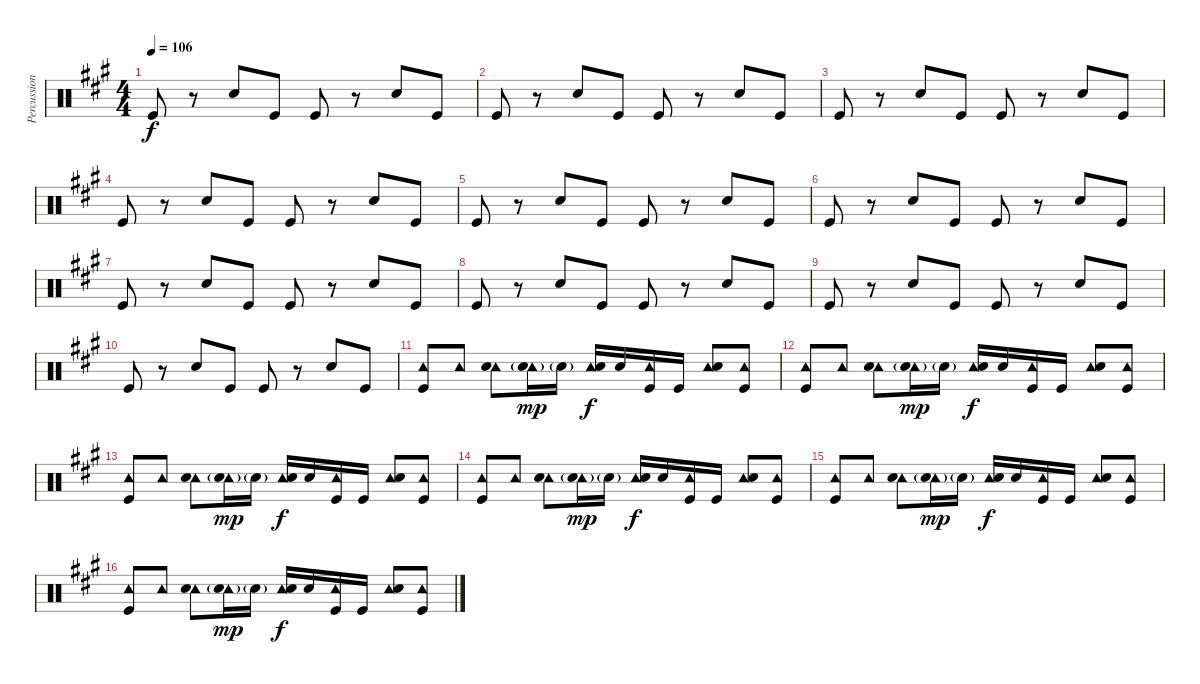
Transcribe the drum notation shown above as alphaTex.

\track ("Percussion" "Percussion") {instrument percussion}
\staff {score}
\articulation defaults
\ts (4 4)
\tempo 106
\clef neutral
\ks f#minor "Kick (hit)".8{dy f}
r.8 "Snare (hit) 2".8 "Kick (hit)".8 "Kick (hit)".8 r.8 "Snare (hit) 2".8 "Kick (hit)".8 |
"Kick (hit)".8 r.8 "Snare (hit) 2".8 "Kick (hit)".8 "Kick (hit)".8 r.8 "Snare (hit) 2".8 "Kick (hit)".8 |
"Kick (hit)".8 r.8 "Snare (hit) 2".8 "Kick (hit)".8 "Kick (hit)".8 r.8 "Snare (hit) 2".8 "Kick (hit)".8 |
"Kick (hit)".8 r.8 "Snare (hit) 2".8 "Kick (hit)".8 "Kick (hit)".8 r.8 "Snare (hit) 2".8 "Kick (hit)".8 |
"Kick (hit)".8 r.8 "Snare (hit) 2".8 "Kick (hit)".8 "Kick (hit)".8 r.8 "Snare (hit) 2".8 "Kick (hit)".8 |
"Kick (hit)".8 r.8 "Snare (hit) 2".8 "Kick (hit)".8 "Kick (hit)".8 r.8 "Snare (hit) 2".8 "Kick (hit)".8 |
"Kick (hit)".8 r.8 "Snare (hit) 2".8 "Kick (hit)".8 "Kick (hit)".8 r.8 "Snare (hit) 2".8 "Kick (hit)".8 |
"Kick (hit)".8 r.8 "Snare (hit) 2".8 "Kick (hit)".8 "Kick (hit)".8 r.8 "Snare (hit) 2".8 "Kick (hit)".8 |
"Kick (hit)".8 r.8 "Snare (hit) 2".8 "Kick (hit)".8 "Kick (hit)".8 r.8 "Snare (hit) 2".8 "Kick (hit)".8 |
"Kick (hit)".8 r.8 "Snare (hit) 2".8 "Kick (hit)".8 "Kick (hit)".8 r.8 "Snare (hit) 2".8 "Kick (hit)".8 |
("Tambourine (hit)" "Kick (hit)").8 "Tambourine (hit)".8 ("Tambourine (hit)" "Snare (hit) 2").8 ("Tambourine (hit)" "Snare (hit) 2"{g}).16{dy mp} "Snare (hit) 2"{g}.16 ("Tambourine (hit)" "Snare (hit) 2").16{dy f} "Snare (hit) 2".16 ("Tambourine (hit)" "Kick (hit)").16 "Kick (hit)".16 ("Tambourine (hit)" "Snare (hit) 2").8 ("Tambourine (hit)" "Kick (hit)").8 |
("Tambourine (hit)" "Kick (hit)").8 "Tambourine (hit)".8 ("Tambourine (hit)" "Snare (hit) 2").8 ("Tambourine (hit)" "Snare (hit) 2"{g}).16{dy mp} "Snare (hit) 2"{g}.16 ("Tambourine (hit)" "Snare (hit) 2").16{dy f} "Snare (hit) 2".16 ("Tambourine (hit)" "Kick (hit)").16 "Kick (hit)".16 ("Tambourine (hit)" "Snare (hit) 2").8 ("Tambourine (hit)" "Kick (hit)").8 |
("Tambourine (hit)" "Kick (hit)").8 "Tambourine (hit)".8 ("Tambourine (hit)" "Snare (hit) 2").8 ("Tambourine (hit)" "Snare (hit) 2"{g}).16{dy mp} "Snare (hit) 2"{g}.16 ("Tambourine (hit)" "Snare (hit) 2").16{dy f} "Snare (hit) 2".16 ("Tambourine (hit)" "Kick (hit)").16 "Kick (hit)".16 ("Tambourine (hit)" "Snare (hit) 2").8 ("Tambourine (hit)" "Kick (hit)").8 |
("Tambourine (hit)" "Kick (hit)").8 "Tambourine (hit)".8 ("Tambourine (hit)" "Snare (hit) 2").8 ("Tambourine (hit)" "Snare (hit) 2"{g}).16{dy mp} "Snare (hit) 2"{g}.16 ("Tambourine (hit)" "Snare (hit) 2").16{dy f} "Snare (hit) 2".16 ("Tambourine (hit)" "Kick (hit)").16 "Kick (hit)".16 ("Tambourine (hit)" "Snare (hit) 2").8 ("Tambourine (hit)" "Kick (hit)").8 |
("Tambourine (hit)" "Kick (hit)").8 "Tambourine (hit)".8 ("Tambourine (hit)" "Snare (hit) 2").8 ("Tambourine (hit)" "Snare (hit) 2"{g}).16{dy mp} "Snare (hit) 2"{g}.16 ("Tambourine (hit)" "Snare (hit) 2").16{dy f} "Snare (hit) 2".16 ("Tambourine (hit)" "Kick (hit)").16 "Kick (hit)".16 ("Tambourine (hit)" "Snare (hit) 2").8 ("Tambourine (hit)" "Kick (hit)").8 |
("Tambourine (hit)" "Kick (hit)").8 "Tambourine (hit)".8 ("Tambourine (hit)" "Snare (hit) 2").8 ("Tambourine (hit)" "Snare (hit) 2"{g}).16{dy mp} "Snare (hit) 2"{g}.16 ("Tambourine (hit)" "Snare (hit) 2").16{dy f} "Snare (hit) 2".16 ("Tambourine (hit)" "Kick (hit)").16 "Kick (hit)".16 ("Tambourine (hit)" "Snare (hit) 2").8 ("Tambourine (hit)" "Kick (hit)").8
